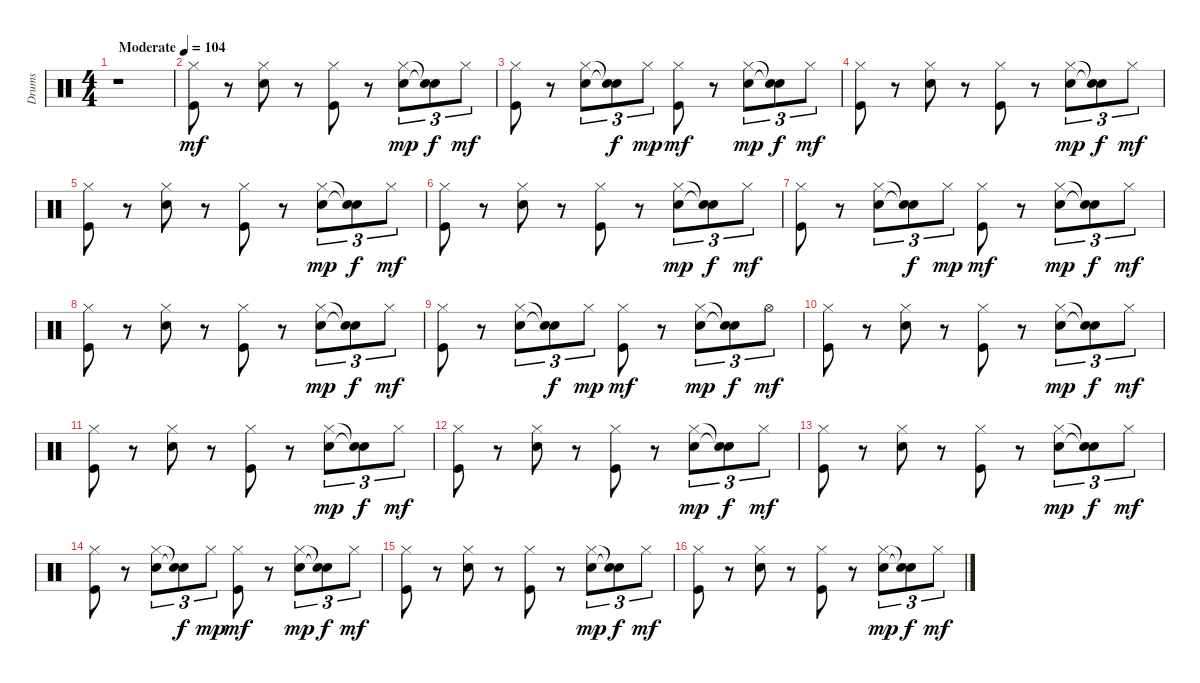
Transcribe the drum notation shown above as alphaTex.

\track ("Drums   " "Drums   ") {instrument percussion}
\staff {score}
\articulation defaults
\ts (4 4)
\tempo (104 "Moderate")
\clef neutral
\ks c
r.1{dy mf} |
("Kick (hit)" "Hi-Hat (closed)").8 r.8 ("Snare (hit) 2" "Hi-Hat (closed)").8 r.8 ("Kick (hit)" "Hi-Hat (closed)").8 r.8 ("Snare (hit) 2" "Hi-Hat (closed)").8{tu (3 2) dy mp} ("Snare (hit)"{t} "Snare (hit)"{t}).8{tu (3 2) dy f} "Hi-Hat (closed)".8{tu (3 2) dy mf} |
("Kick (hit)" "Hi-Hat (closed)").8 r.8 ("Snare (hit) 2" "Hi-Hat (closed)").8{tu (3 2)} ("Snare (hit)"{t} "Snare (hit)"{t}).8{tu (3 2) dy f} "Hi-Hat (closed)".8{tu (3 2) dy mp} ("Kick (hit)" "Hi-Hat (closed)").8{dy mf} r.8 ("Snare (hit) 2" "Hi-Hat (closed)").8{tu (3 2) dy mp} ("Snare (hit)"{t} "Snare (hit)"{t}).8{tu (3 2) dy f} "Hi-Hat (closed)".8{tu (3 2) dy mf} |
("Kick (hit)" "Hi-Hat (closed)").8 r.8 ("Snare (hit) 2" "Hi-Hat (closed)").8 r.8 ("Kick (hit)" "Hi-Hat (closed)").8 r.8 ("Snare (hit) 2" "Hi-Hat (closed)").8{tu (3 2) dy mp} ("Snare (hit)"{t} "Snare (hit)"{t}).8{tu (3 2) dy f} "Hi-Hat (closed)".8{tu (3 2) dy mf} |
("Kick (hit)" "Hi-Hat (closed)").8 r.8 ("Snare (hit) 2" "Hi-Hat (closed)").8 r.8 ("Kick (hit)" "Hi-Hat (closed)").8 r.8 ("Snare (hit) 2" "Hi-Hat (closed)").8{tu (3 2) dy mp} ("Snare (hit)"{t} "Snare (hit)"{t}).8{tu (3 2) dy f} "Hi-Hat (closed)".8{tu (3 2) dy mf} |
("Kick (hit)" "Hi-Hat (closed)").8 r.8 ("Snare (hit) 2" "Hi-Hat (closed)").8 r.8 ("Kick (hit)" "Hi-Hat (closed)").8 r.8 ("Snare (hit) 2" "Hi-Hat (closed)").8{tu (3 2) dy mp} ("Snare (hit)"{t} "Snare (hit)"{t}).8{tu (3 2) dy f} "Hi-Hat (closed)".8{tu (3 2) dy mf} |
("Kick (hit)" "Hi-Hat (closed)").8 r.8 ("Snare (hit) 2" "Hi-Hat (closed)").8{tu (3 2)} ("Snare (hit)"{t} "Snare (hit)"{t}).8{tu (3 2) dy f} "Hi-Hat (closed)".8{tu (3 2) dy mp} ("Kick (hit)" "Hi-Hat (closed)").8{dy mf} r.8 ("Snare (hit) 2" "Hi-Hat (closed)").8{tu (3 2) dy mp} ("Snare (hit)"{t} "Snare (hit)"{t}).8{tu (3 2) dy f} "Hi-Hat (closed)".8{tu (3 2) dy mf} |
("Kick (hit)" "Hi-Hat (closed)").8 r.8 ("Snare (hit) 2" "Hi-Hat (closed)").8 r.8 ("Kick (hit)" "Hi-Hat (closed)").8 r.8 ("Snare (hit) 2" "Hi-Hat (closed)").8{tu (3 2) dy mp} ("Snare (hit)"{t} "Snare (hit)"{t}).8{tu (3 2) dy f} "Hi-Hat (closed)".8{tu (3 2) dy mf} |
("Kick (hit)" "Hi-Hat (closed)").8 r.8 ("Snare (hit) 2" "Hi-Hat (closed)").8{tu (3 2)} ("Snare (hit)"{t} "Snare (hit)"{t}).8{tu (3 2) dy f} "Hi-Hat (closed)".8{tu (3 2) dy mp} ("Kick (hit)" "Hi-Hat (closed)").8{dy mf} r.8 ("Snare (hit) 2" "Hi-Hat (closed)").8{tu (3 2) dy mp} ("Snare (hit)"{t} "Snare (hit)"{t}).8{tu (3 2) dy f} "Hi-Hat (open)".8{tu (3 2) dy mf} |
("Kick (hit)" "Hi-Hat (closed)").8 r.8 ("Snare (hit) 2" "Hi-Hat (closed)").8 r.8 ("Kick (hit)" "Hi-Hat (closed)").8 r.8 ("Snare (hit) 2" "Hi-Hat (closed)").8{tu (3 2) dy mp} ("Snare (hit)"{t} "Snare (hit)"{t}).8{tu (3 2) dy f} "Hi-Hat (closed)".8{tu (3 2) dy mf} |
("Kick (hit)" "Hi-Hat (closed)").8 r.8 ("Snare (hit) 2" "Hi-Hat (closed)").8 r.8 ("Kick (hit)" "Hi-Hat (closed)").8 r.8 ("Snare (hit) 2" "Hi-Hat (closed)").8{tu (3 2) dy mp} ("Snare (hit)"{t} "Snare (hit)"{t}).8{tu (3 2) dy f} "Hi-Hat (closed)".8{tu (3 2) dy mf} |
("Kick (hit)" "Hi-Hat (closed)").8 r.8 ("Snare (hit) 2" "Hi-Hat (closed)").8 r.8 ("Kick (hit)" "Hi-Hat (closed)").8 r.8 ("Snare (hit) 2" "Hi-Hat (closed)").8{tu (3 2) dy mp} ("Snare (hit)"{t} "Snare (hit)"{t}).8{tu (3 2) dy f} "Hi-Hat (closed)".8{tu (3 2) dy mf} |
("Kick (hit)" "Hi-Hat (closed)").8 r.8 ("Snare (hit) 2" "Hi-Hat (closed)").8 r.8 ("Kick (hit)" "Hi-Hat (closed)").8 r.8 ("Snare (hit) 2" "Hi-Hat (closed)").8{tu (3 2) dy mp} ("Snare (hit)"{t} "Snare (hit)"{t}).8{tu (3 2) dy f} "Hi-Hat (closed)".8{tu (3 2) dy mf} |
("Kick (hit)" "Hi-Hat (closed)").8 r.8 ("Snare (hit) 2" "Hi-Hat (closed)").8{tu (3 2)} ("Snare (hit)"{t} "Snare (hit)"{t}).8{tu (3 2) dy f} "Hi-Hat (closed)".8{tu (3 2) dy mp} ("Kick (hit)" "Hi-Hat (closed)").8{dy mf} r.8 ("Snare (hit) 2" "Hi-Hat (closed)").8{tu (3 2) dy mp} ("Snare (hit)"{t} "Snare (hit)"{t}).8{tu (3 2) dy f} "Hi-Hat (closed)".8{tu (3 2) dy mf} |
("Kick (hit)" "Hi-Hat (closed)").8 r.8 ("Snare (hit) 2" "Hi-Hat (closed)").8 r.8 ("Kick (hit)" "Hi-Hat (closed)").8 r.8 ("Snare (hit) 2" "Hi-Hat (closed)").8{tu (3 2) dy mp} ("Snare (hit)"{t} "Snare (hit)"{t}).8{tu (3 2) dy f} "Hi-Hat (closed)".8{tu (3 2) dy mf} |
("Kick (hit)" "Hi-Hat (closed)").8 r.8 ("Snare (hit) 2" "Hi-Hat (closed)").8 r.8 ("Kick (hit)" "Hi-Hat (closed)").8 r.8 ("Snare (hit) 2" "Hi-Hat (closed)").8{tu (3 2) dy mp} ("Snare (hit)"{t} "Snare (hit)"{t}).8{tu (3 2) dy f} "Hi-Hat (closed)".8{tu (3 2) dy mf}
